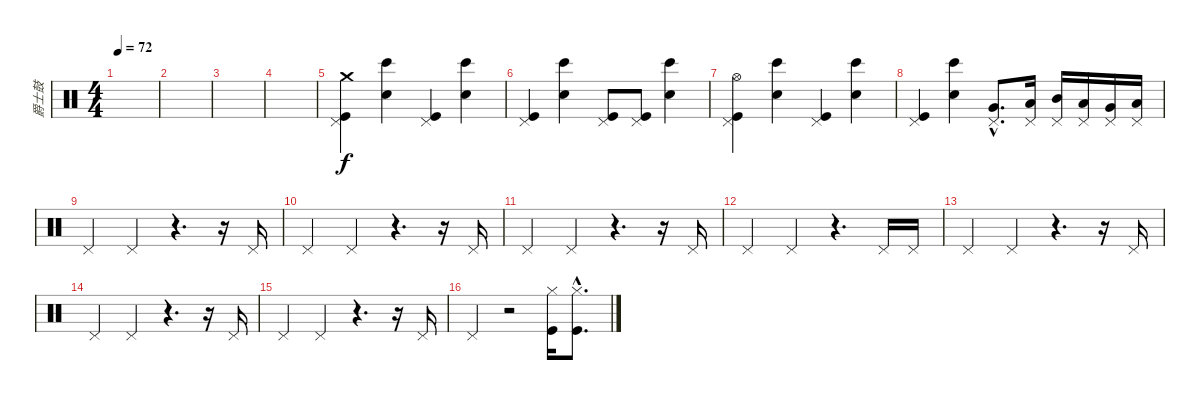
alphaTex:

\track ("爵士鼓" "爵士鼓") {instrument percussion}
\staff {score}
\articulation defaults
\ts (4 4)
\tempo 72
\clef neutral
\ks c
|
|
|
|
("Pedal Hi-Hat (hit)" "Kick (hit)" "Crash medium (hit)").4 ("Bongo High (hit)" "Hand Clap (hit)").4 ("Pedal Hi-Hat (hit)" "Kick (hit)").4 ("Bongo High (hit)" "Hand Clap (hit)").4 |
("Pedal Hi-Hat (hit)" "Kick (hit)").4 ("Bongo High (hit)" "Hand Clap (hit)").4 ("Pedal Hi-Hat (hit)" "Kick (hit)").8 ("Pedal Hi-Hat (hit)" "Kick (hit)").8 ("Bongo High (hit)" "Hand Clap (hit)").4 |
("Pedal Hi-Hat (hit)" "Kick (hit)" "Hi-Hat (open)").4 ("Bongo High (hit)" "Hand Clap (hit)").4 ("Pedal Hi-Hat (hit)" "Kick (hit)").4 ("Bongo High (hit)" "Hand Clap (hit)").4 |
("Pedal Hi-Hat (hit)" "Kick (hit)").4 ("Bongo High (hit)" "Hand Clap (hit)").4 ("Pedal Hi-Hat (hit)"{hac} "Very Low Tom (hit)"{hac}).8{d} ("Pedal Hi-Hat (hit)" "Low Floor Tom (hit)").16 ("Pedal Hi-Hat (hit)" "Mid Tom (hit)").16 ("Pedal Hi-Hat (hit)" "Low Tom (hit)").16 ("Pedal Hi-Hat (hit)" "Very Low Tom (hit)").16 ("Pedal Hi-Hat (hit)" "Low Floor Tom (hit)").16 |
"Pedal Hi-Hat (hit)".4 "Pedal Hi-Hat (hit)".4 r.4{d} r.16 "Pedal Hi-Hat (hit)".16 |
"Pedal Hi-Hat (hit)".4 "Pedal Hi-Hat (hit)".4 r.4{d} r.16 "Pedal Hi-Hat (hit)".16 |
"Pedal Hi-Hat (hit)".4 "Pedal Hi-Hat (hit)".4 r.4{d} r.16 "Pedal Hi-Hat (hit)".16 |
"Pedal Hi-Hat (hit)".4 "Pedal Hi-Hat (hit)".4 r.4{d} "Pedal Hi-Hat (hit)".16 "Pedal Hi-Hat (hit)".16 |
"Pedal Hi-Hat (hit)".4 "Pedal Hi-Hat (hit)".4 r.4{d} r.16 "Pedal Hi-Hat (hit)".16 |
"Pedal Hi-Hat (hit)".4 "Pedal Hi-Hat (hit)".4 r.4{d} r.16 "Pedal Hi-Hat (hit)".16 |
"Pedal Hi-Hat (hit)".4 "Pedal Hi-Hat (hit)".4 r.4{d} r.16 "Pedal Hi-Hat (hit)".16 |
"Pedal Hi-Hat (hit)".4 r.2 ("Hi-Hat (closed)" "Kick (hit)").16 ("Hi-Hat (closed)"{hac} "Kick (hit)"{hac}).8{d}
